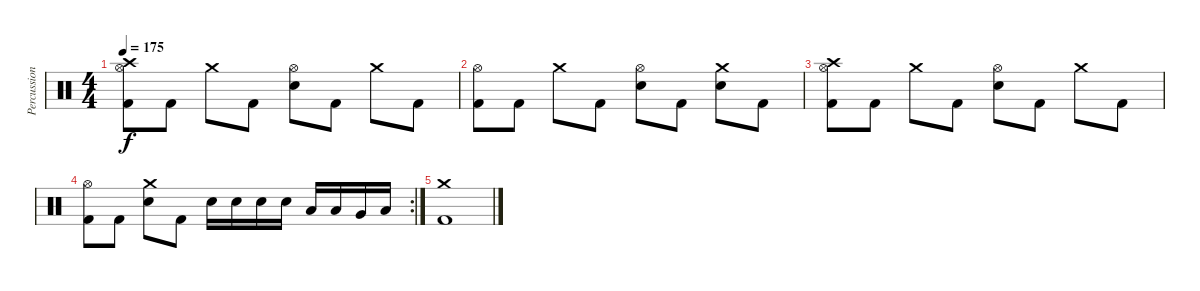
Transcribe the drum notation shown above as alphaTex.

\track ("Percussion" "Percussion") {instrument percussion}
\staff {score}
\articulation defaults
\ts (4 4)
\tempo 175
\clef neutral
\ks c
("Hi-Hat (open)" "Crash high (hit)" "Kick (hit) 2").8{dy f} "Kick (hit) 2".8 "Crash medium (hit)".8 "Kick (hit) 2".8 ("Hi-Hat (open)" "Electric Snare (hit)").8 "Kick (hit) 2".8 "Crash medium (hit)".8 "Kick (hit) 2".8 |
("Hi-Hat (open)" "Kick (hit) 2").8 "Kick (hit) 2".8 "Crash medium (hit)".8 "Kick (hit) 2".8 ("Hi-Hat (open)" "Electric Snare (hit)").8 "Kick (hit) 2".8 ("Crash medium (hit)" "Electric Snare (hit)").8 "Kick (hit) 2".8 |
("Hi-Hat (open)" "Crash high (hit)" "Kick (hit) 2").8 "Kick (hit) 2".8 "Crash medium (hit)".8 "Kick (hit) 2".8 ("Hi-Hat (open)" "Electric Snare (hit)").8 "Kick (hit) 2".8 "Crash medium (hit)".8 "Kick (hit) 2".8 |
\rc 2
("Hi-Hat (open)" "Kick (hit) 2").8 "Kick (hit) 2".8 ("Crash medium (hit)" "Electric Snare (hit)").8 "Kick (hit) 2".8 "Electric Snare (hit)".16 "Electric Snare (hit)".16 "Electric Snare (hit)".16 "Electric Snare (hit)".16 "Low Tom (hit)".16 "Low Tom (hit)".16 "Very Low Tom (hit)".16 "Low Floor Tom (hit)".16 |
("Crash medium (hit)" "Kick (hit) 2").1
